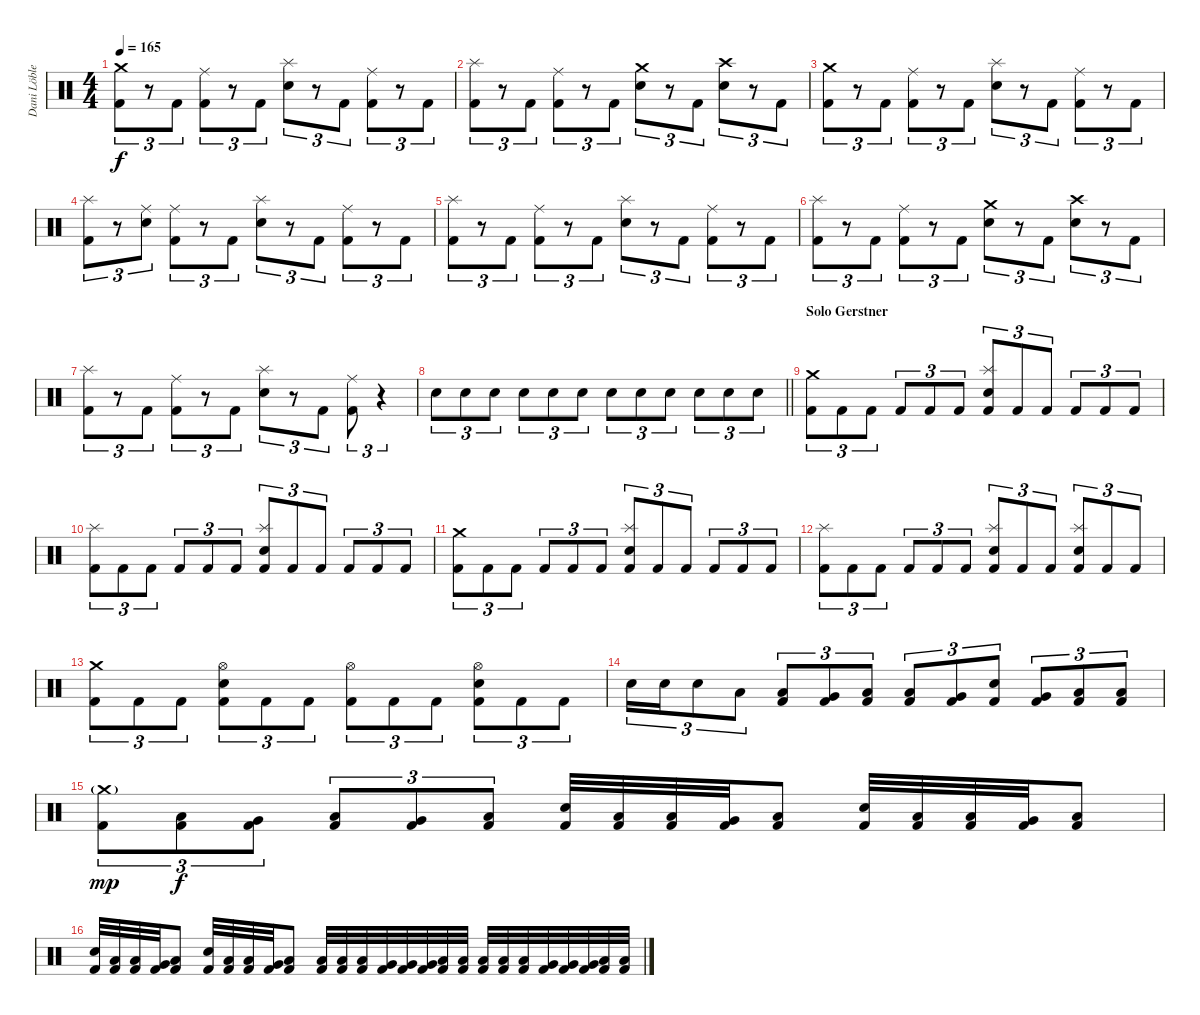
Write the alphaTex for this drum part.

\track ("Dani Löble" "Dani Löble") {instrument percussion}
\staff {score}
\articulation defaults
\ts (4 4)
\tempo 165
\clef neutral
\ks c
("Crash medium (hit)" "Kick (hit) 2").8{tu (3 2) dy f} r.8{tu (3 2)} "Kick (hit) 2".8{tu (3 2)} ("Ride (middle)" "Kick (hit) 2").8{tu (3 2)} r.8{tu (3 2)} "Kick (hit) 2".8{tu (3 2)} ("Splash (hit)" "Electric Snare (hit)").8{tu (3 2)} r.8{tu (3 2)} "Kick (hit) 2".8{tu (3 2)} ("Ride (middle)" "Kick (hit) 2").8{tu (3 2)} r.8{tu (3 2)} "Kick (hit) 2".8{tu (3 2)} |
("Splash (hit)" "Kick (hit) 2").8{tu (3 2)} r.8{tu (3 2)} "Kick (hit) 2".8{tu (3 2)} ("Ride (middle)" "Kick (hit) 2").8{tu (3 2)} r.8{tu (3 2)} "Kick (hit) 2".8{tu (3 2)} ("Crash medium (hit)" "Electric Snare (hit)").8{tu (3 2)} r.8{tu (3 2)} "Kick (hit) 2".8{tu (3 2)} ("Crash high (hit)" "Electric Snare (hit)").8{tu (3 2)} r.8{tu (3 2)} "Kick (hit) 2".8{tu (3 2)} |
("Crash medium (hit)" "Kick (hit) 2").8{tu (3 2)} r.8{tu (3 2)} "Kick (hit) 2".8{tu (3 2)} ("Ride (middle)" "Kick (hit) 2").8{tu (3 2)} r.8{tu (3 2)} "Kick (hit) 2".8{tu (3 2)} ("Splash (hit)" "Electric Snare (hit)").8{tu (3 2)} r.8{tu (3 2)} "Kick (hit) 2".8{tu (3 2)} ("Ride (middle)" "Kick (hit) 2").8{tu (3 2)} r.8{tu (3 2)} "Kick (hit) 2".8{tu (3 2)} |
("Splash (hit)" "Kick (hit) 2").8{tu (3 2)} r.8{tu (3 2)} ("Ride (middle)" "Electric Snare (hit)").8{tu (3 2)} ("Ride (middle)" "Kick (hit) 2").8{tu (3 2)} r.8{tu (3 2)} "Kick (hit) 2".8{tu (3 2)} ("Splash (hit)" "Electric Snare (hit)").8{tu (3 2)} r.8{tu (3 2)} "Kick (hit) 2".8{tu (3 2)} ("Ride (middle)" "Kick (hit) 2").8{tu (3 2)} r.8{tu (3 2)} "Kick (hit) 2".8{tu (3 2)} |
("Splash (hit)" "Kick (hit) 2").8{tu (3 2)} r.8{tu (3 2)} "Kick (hit) 2".8{tu (3 2)} ("Ride (middle)" "Kick (hit) 2").8{tu (3 2)} r.8{tu (3 2)} "Kick (hit) 2".8{tu (3 2)} ("Splash (hit)" "Electric Snare (hit)").8{tu (3 2)} r.8{tu (3 2)} "Kick (hit) 2".8{tu (3 2)} ("Ride (middle)" "Kick (hit) 2").8{tu (3 2)} r.8{tu (3 2)} "Kick (hit) 2".8{tu (3 2)} |
("Splash (hit)" "Kick (hit) 2").8{tu (3 2)} r.8{tu (3 2)} "Kick (hit) 2".8{tu (3 2)} ("Ride (middle)" "Kick (hit) 2").8{tu (3 2)} r.8{tu (3 2)} "Kick (hit) 2".8{tu (3 2)} ("Crash medium (hit)" "Electric Snare (hit)").8{tu (3 2)} r.8{tu (3 2)} "Kick (hit) 2".8{tu (3 2)} ("Crash high (hit)" "Electric Snare (hit)").8{tu (3 2)} r.8{tu (3 2)} "Kick (hit) 2".8{tu (3 2)} |
("Splash (hit)" "Kick (hit) 2").8{tu (3 2)} r.8{tu (3 2)} "Kick (hit) 2".8{tu (3 2)} ("Ride (middle)" "Kick (hit) 2").8{tu (3 2)} r.8{tu (3 2)} "Kick (hit) 2".8{tu (3 2)} ("Splash (hit)" "Electric Snare (hit)").8{tu (3 2)} r.8{tu (3 2)} "Kick (hit) 2".8{tu (3 2)} ("Ride (middle)" "Kick (hit) 2").8{tu (3 2)} r.4{tu (3 2)} |
\barLineRight lightlight "Electric Snare (hit)".8{tu (3 2)} "Electric Snare (hit)".8{tu (3 2)} "Electric Snare (hit)".8{tu (3 2)} "Electric Snare (hit)".8{tu (3 2)} "Electric Snare (hit)".8{tu (3 2)} "Electric Snare (hit)".8{tu (3 2)} "Electric Snare (hit)".8{tu (3 2)} "Electric Snare (hit)".8{tu (3 2)} "Electric Snare (hit)".8{tu (3 2)} "Electric Snare (hit)".8{tu (3 2)} "Electric Snare (hit)".8{tu (3 2)} "Electric Snare (hit)".8{tu (3 2)}
|
\section ("" "Solo Gerstner")
("Crash medium (hit)" "Kick (hit) 2").8{tu (3 2)} "Kick (hit) 2".8{tu (3 2)} "Kick (hit) 2".8{tu (3 2)} "Kick (hit) 2".8{tu (3 2)} "Kick (hit) 2".8{tu (3 2)} "Kick (hit) 2".8{tu (3 2)} ("Splash (hit)" "Electric Snare (hit)" "Kick (hit) 2").8{tu (3 2)} "Kick (hit) 2".8{tu (3 2)} "Kick (hit) 2".8{tu (3 2)} "Kick (hit) 2".8{tu (3 2)} "Kick (hit) 2".8{tu (3 2)} "Kick (hit) 2".8{tu (3 2)} |
("Splash (hit)" "Kick (hit) 2").8{tu (3 2)} "Kick (hit) 2".8{tu (3 2)} "Kick (hit) 2".8{tu (3 2)} "Kick (hit) 2".8{tu (3 2)} "Kick (hit) 2".8{tu (3 2)} "Kick (hit) 2".8{tu (3 2)} ("Splash (hit)" "Electric Snare (hit)" "Kick (hit) 2").8{tu (3 2)} "Kick (hit) 2".8{tu (3 2)} "Kick (hit) 2".8{tu (3 2)} "Kick (hit) 2".8{tu (3 2)} "Kick (hit) 2".8{tu (3 2)} "Kick (hit) 2".8{tu (3 2)} |
("Crash medium (hit)" "Kick (hit) 2").8{tu (3 2)} "Kick (hit) 2".8{tu (3 2)} "Kick (hit) 2".8{tu (3 2)} "Kick (hit) 2".8{tu (3 2)} "Kick (hit) 2".8{tu (3 2)} "Kick (hit) 2".8{tu (3 2)} ("Splash (hit)" "Electric Snare (hit)" "Kick (hit) 2").8{tu (3 2)} "Kick (hit) 2".8{tu (3 2)} "Kick (hit) 2".8{tu (3 2)} "Kick (hit) 2".8{tu (3 2)} "Kick (hit) 2".8{tu (3 2)} "Kick (hit) 2".8{tu (3 2)} |
("Splash (hit)" "Kick (hit) 2").8{tu (3 2)} "Kick (hit) 2".8{tu (3 2)} "Kick (hit) 2".8{tu (3 2)} "Kick (hit) 2".8{tu (3 2)} "Kick (hit) 2".8{tu (3 2)} "Kick (hit) 2".8{tu (3 2)} ("Splash (hit)" "Electric Snare (hit)" "Kick (hit) 2").8{tu (3 2)} "Kick (hit) 2".8{tu (3 2)} "Kick (hit) 2".8{tu (3 2)} ("Splash (hit)" "Electric Snare (hit)" "Kick (hit) 2").8{tu (3 2)} "Kick (hit) 2".8{tu (3 2)} "Kick (hit) 2".8{tu (3 2)} |
("Crash medium (hit)" "Kick (hit) 2").8{tu (3 2)} "Kick (hit) 2".8{tu (3 2)} "Kick (hit) 2".8{tu (3 2)} ("Hi-Hat (open)" "Electric Snare (hit)" "Kick (hit) 2").8{tu (3 2)} "Kick (hit) 2".8{tu (3 2)} "Kick (hit) 2".8{tu (3 2)} ("Hi-Hat (open)" "Kick (hit) 2").8{tu (3 2)} "Kick (hit) 2".8{tu (3 2)} "Kick (hit) 2".8{tu (3 2)} ("Hi-Hat (open)" "Electric Snare (hit)" "Kick (hit) 2").8{tu (3 2)} "Kick (hit) 2".8{tu (3 2)} "Kick (hit) 2".8{tu (3 2)} |
"Electric Snare (hit)".16{tu (3 2)} "Electric Snare (hit)".16{tu (3 2)} "Electric Snare (hit)".8{tu (3 2)} "Low Floor Tom (hit)".8{tu (3 2)} ("Low Tom (hit)" "Kick (hit) 2").8{tu (3 2)} ("Very Low Tom (hit)" "Kick (hit) 2").8{tu (3 2)} ("Low Floor Tom (hit)" "Kick (hit) 2").8{tu (3 2)} ("Low Tom (hit)" "Kick (hit) 2").8{tu (3 2)} ("Very Low Tom (hit)" "Kick (hit) 2").8{tu (3 2)} ("Electric Snare (hit)" "Kick (hit) 2").8{tu (3 2)} ("Very Low Tom (hit)" "Kick (hit) 2").8{tu (3 2)} ("Low Floor Tom (hit)" "Kick (hit) 2").8{tu (3 2)} ("Low Floor Tom (hit)" "Kick (hit) 2").8{tu (3 2)} |
("Crash medium (hit)"{g} "Kick (hit) 2").8{tu (3 2) dy mp} ("Low Tom (hit)" "Kick (hit) 2").8{tu (3 2) dy f} ("Very Low Tom (hit)" "Kick (hit) 2").8{tu (3 2)} ("Low Tom (hit)" "Kick (hit) 2").8{tu (3 2)} ("Very Low Tom (hit)" "Kick (hit) 2").8{tu (3 2)} ("Low Floor Tom (hit)" "Kick (hit) 2").8{tu (3 2)} ("Electric Snare (hit)" "Kick (hit) 2").32 ("Low Tom (hit)" "Kick (hit) 2").32 ("Low Tom (hit)" "Kick (hit) 2").32 ("Very Low Tom (hit)" "Kick (hit) 2").32 ("Low Floor Tom (hit)" "Kick (hit) 2").8 ("Electric Snare (hit)" "Kick (hit) 2").32 ("Low Tom (hit)" "Kick (hit) 2").32 ("Low Tom (hit)" "Kick (hit) 2").32 ("Very Low Tom (hit)" "Kick (hit) 2").32 ("Low Floor Tom (hit)" "Kick (hit) 2").8 |
("Electric Snare (hit)" "Kick (hit) 2").32 ("Low Tom (hit)" "Kick (hit) 2").32 ("Low Tom (hit)" "Kick (hit) 2").32 ("Very Low Tom (hit)" "Kick (hit) 2").32 ("Low Floor Tom (hit)" "Kick (hit) 2").8 ("Electric Snare (hit)" "Kick (hit) 2").32 ("Low Tom (hit)" "Kick (hit) 2").32 ("Low Tom (hit)" "Kick (hit) 2").32 ("Very Low Tom (hit)" "Kick (hit) 2").32 ("Low Floor Tom (hit)" "Kick (hit) 2").8 ("Low Tom (hit)" "Kick (hit) 2").32 ("Low Tom (hit)" "Kick (hit) 2").32 ("Low Tom (hit)" "Kick (hit) 2").32 ("Very Low Tom (hit)" "Kick (hit) 2").32 ("Very Low Tom (hit)" "Kick (hit) 2").32 ("Very Low Tom (hit)" "Kick (hit) 2").32 ("Low Floor Tom (hit)" "Kick (hit) 2").32 ("Low Floor Tom (hit)" "Kick (hit) 2").32 ("Low Tom (hit)" "Kick (hit) 2").32 ("Low Tom (hit)" "Kick (hit) 2").32 ("Low Tom (hit)" "Kick (hit) 2").32 ("Very Low Tom (hit)" "Kick (hit) 2").32 ("Very Low Tom (hit)" "Kick (hit) 2").32 ("Very Low Tom (hit)" "Kick (hit) 2").32 ("Low Floor Tom (hit)" "Kick (hit) 2").32 ("Low Floor Tom (hit)" "Kick (hit) 2").32
